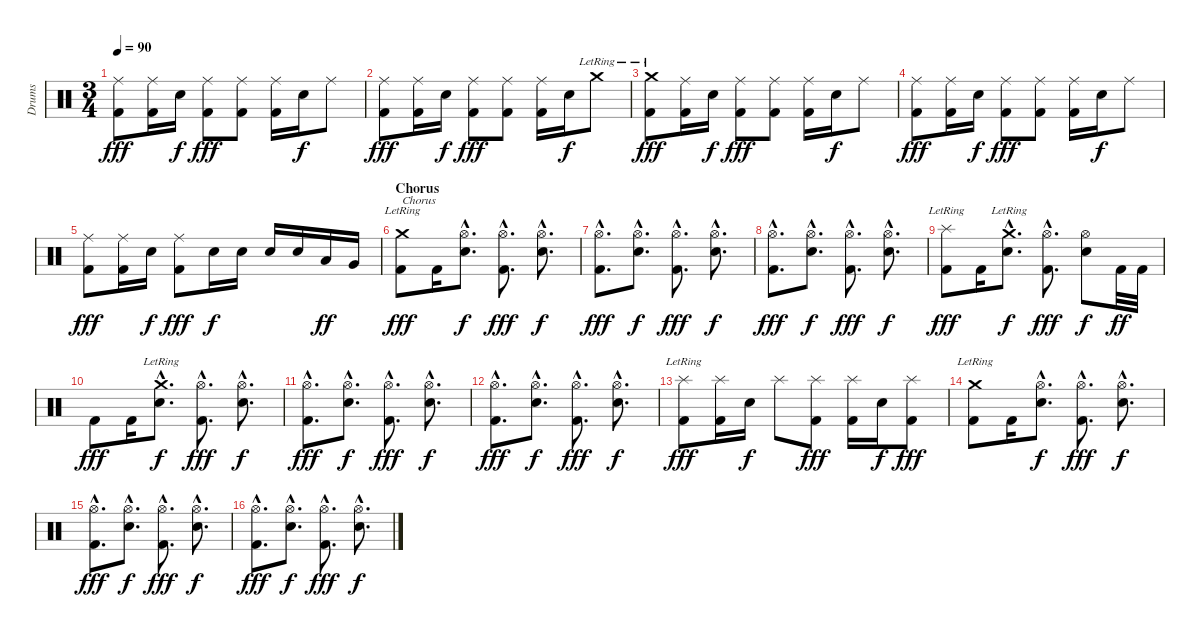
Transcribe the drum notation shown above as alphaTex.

\track ("Drums" "Drums") {instrument percussion}
\staff {score}
\articulation defaults
\ts (3 4)
\tempo 90
\clef neutral
\ks c
("Ride (middle)" "Kick (hit) 2").8{dy fff} ("Ride (middle)" "Kick (hit) 2").16 "Snare (hit) 2".16{dy f} ("Ride (middle)" "Kick (hit) 2").8{dy fff} ("Ride (middle)" "Kick (hit) 2").8 ("Ride (middle)" "Kick (hit) 2").16 "Snare (hit) 2".16{dy f} "Ride (middle)".8 |
("Ride (middle)" "Kick (hit) 2").8{dy fff} ("Ride (middle)" "Kick (hit) 2").16 "Snare (hit) 2".16{dy f} ("Ride (middle)" "Kick (hit) 2").8{dy fff} ("Ride (middle)" "Kick (hit) 2").8 ("Ride (middle)" "Kick (hit) 2").16 "Snare (hit) 2".16{dy f} "Crash medium (hit)"{lr}.8 |
("Crash medium (hit)"{lr} "Kick (hit) 2").8{dy fff} ("Ride (middle)" "Kick (hit) 2").16 "Snare (hit) 2".16{dy f} ("Ride (middle)" "Kick (hit) 2").8{dy fff} ("Ride (middle)" "Kick (hit) 2").8 ("Ride (middle)" "Kick (hit) 2").16 "Snare (hit) 2".16{dy f} "Ride (middle)".8 |
("Ride (middle)" "Kick (hit) 2").8{dy fff} ("Ride (middle)" "Kick (hit) 2").16 "Snare (hit) 2".16{dy f} ("Ride (middle)" "Kick (hit) 2").8{dy fff} ("Ride (middle)" "Kick (hit) 2").8 ("Ride (middle)" "Kick (hit) 2").16 "Snare (hit) 2".16{dy f} "Ride (middle)".8 |
("Ride (middle)" "Kick (hit) 2").8{dy fff} ("Ride (middle)" "Kick (hit) 2").16 "Snare (hit) 2".16{dy f} ("Ride (middle)" "Kick (hit) 2").8{dy fff} "Snare (hit) 2".16{dy f} "Snare (hit) 2".16 "Snare (hit) 2".16 "Snare (hit) 2".16 "Low Tom (hit)".16{dy ff} "Very Low Tom (hit)".16 |
\section ("" "Chorus")
("Crash medium (hit)"{lr} "Kick (hit) 2").8{txt "Chorus" dy fff} "Kick (hit) 2".16 ("Hi-Hat (open)"{hac} "Snare (hit) 2"{hac}).8{d dy f} ("Hi-Hat (open)"{hac} "Kick (hit) 2"{hac}).8{d dy fff} ("Hi-Hat (open)"{hac} "Snare (hit) 2"{hac}).8{d dy f} |
("Hi-Hat (open)"{hac} "Kick (hit) 2"{hac}).8{d dy fff} ("Hi-Hat (open)"{hac} "Snare (hit) 2"{hac}).8{d dy f} ("Hi-Hat (open)"{hac} "Kick (hit) 2"{hac}).8{d dy fff} ("Hi-Hat (open)"{hac} "Snare (hit) 2"{hac}).8{d dy f} |
("Hi-Hat (open)"{hac} "Kick (hit) 2"{hac}).8{d dy fff} ("Hi-Hat (open)"{hac} "Snare (hit) 2"{hac}).8{d dy f} ("Hi-Hat (open)"{hac} "Kick (hit) 2"{hac}).8{d dy fff} ("Hi-Hat (open)"{hac} "Snare (hit) 2"{hac}).8{d dy f} |
("Splash (hit)"{lr} "Kick (hit) 2").8{dy fff} "Kick (hit) 2".16 ("Crash medium (hit)"{hac lr} "Snare (hit) 2"{hac}).8{d dy f} ("Hi-Hat (open)"{hac} "Kick (hit) 2"{hac}).8{d dy fff} ("Hi-Hat (open)" "Snare (hit) 2").8{dy f} "Kick (hit) 2".32{dy ff} "Kick (hit) 2".32 |
"Kick (hit) 2".8{dy fff} "Kick (hit) 2".16 ("Crash medium (hit)"{hac lr} "Snare (hit) 2"{hac}).8{d dy f} ("Hi-Hat (open)"{hac} "Kick (hit) 2"{hac}).8{d dy fff} ("Hi-Hat (open)"{hac} "Snare (hit) 2"{hac}).8{d dy f} |
("Hi-Hat (open)"{hac} "Kick (hit) 2"{hac}).8{d dy fff} ("Hi-Hat (open)"{hac} "Snare (hit) 2"{hac}).8{d dy f} ("Hi-Hat (open)"{hac} "Kick (hit) 2"{hac}).8{d dy fff} ("Hi-Hat (open)"{hac} "Snare (hit) 2"{hac}).8{d dy f} |
("Hi-Hat (open)"{hac} "Kick (hit) 2"{hac}).8{d dy fff} ("Hi-Hat (open)"{hac} "Snare (hit) 2"{hac}).8{d dy f} ("Hi-Hat (open)"{hac} "Kick (hit) 2"{hac}).8{d dy fff} ("Hi-Hat (open)"{hac} "Snare (hit) 2"{hac}).8{d dy f} |
("Splash (hit)"{lr} "Kick (hit) 2").8{dy fff} ("Splash (hit)" "Kick (hit) 2").16 "Snare (hit) 2".16{dy f} "Splash (hit)".8 ("Splash (hit)" "Kick (hit) 2").8{dy fff} ("Splash (hit)" "Kick (hit) 2").16 "Snare (hit) 2".16{dy f} ("Splash (hit)" "Kick (hit) 2").8{dy fff} |
("Crash medium (hit)"{lr} "Kick (hit) 2").8 "Kick (hit) 2".16 ("Hi-Hat (open)"{hac} "Snare (hit) 2"{hac}).8{d dy f} ("Hi-Hat (open)"{hac} "Kick (hit) 2"{hac}).8{d dy fff} ("Hi-Hat (open)"{hac} "Snare (hit) 2"{hac}).8{d dy f} |
("Hi-Hat (open)"{hac} "Kick (hit) 2"{hac}).8{d dy fff} ("Hi-Hat (open)"{hac} "Snare (hit) 2"{hac}).8{d dy f} ("Hi-Hat (open)"{hac} "Kick (hit) 2"{hac}).8{d dy fff} ("Hi-Hat (open)"{hac} "Snare (hit) 2"{hac}).8{d dy f} |
("Hi-Hat (open)"{hac} "Kick (hit) 2"{hac}).8{d dy fff} ("Hi-Hat (open)"{hac} "Snare (hit) 2"{hac}).8{d dy f} ("Hi-Hat (open)"{hac} "Kick (hit) 2"{hac}).8{d dy fff} ("Hi-Hat (open)"{hac} "Snare (hit) 2"{hac}).8{d dy f}
